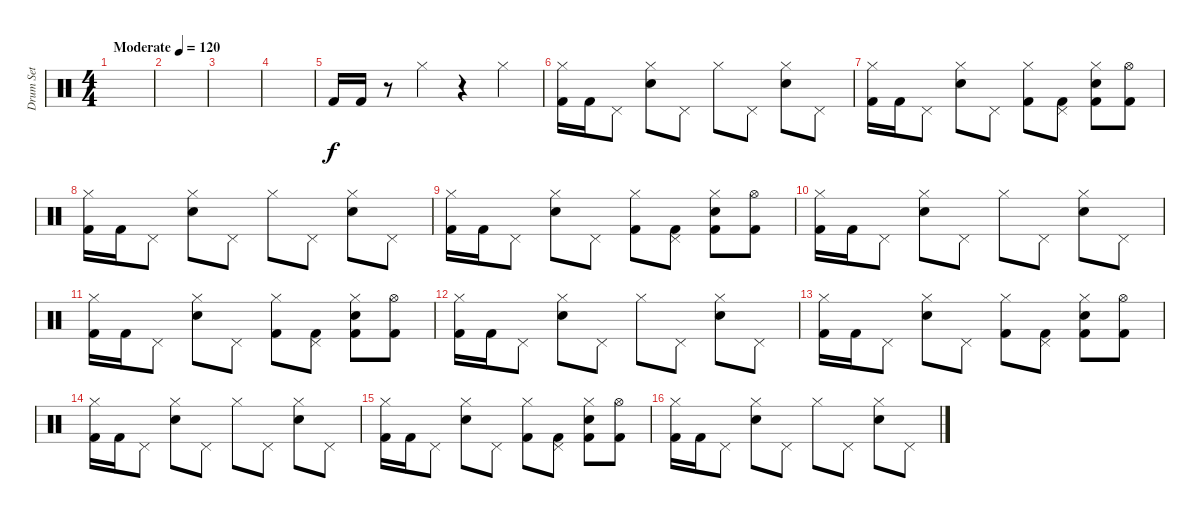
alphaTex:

\track ("Drum Set" "Drum Set") {instrument percussion}
\staff {score}
\articulation defaults
\ts (4 4)
\tempo (120 "Moderate")
\clef neutral
\ks c
|
|
|
|
"Kick (hit) 2".16 "Kick (hit) 2".16 r.8 "Hi-Hat (closed)".4 r.4 "Hi-Hat (closed)".4 |
("Kick (hit) 2" "Hi-Hat (closed)").16 "Kick (hit) 2".16 "Pedal Hi-Hat (hit)".8 ("Hi-Hat (closed)" "Snare (hit) 2").8 "Pedal Hi-Hat (hit)".8 "Hi-Hat (closed)".8 "Pedal Hi-Hat (hit)".8 ("Hi-Hat (closed)" "Snare (hit) 2").8 "Pedal Hi-Hat (hit)".8 |
("Kick (hit) 2" "Hi-Hat (closed)").16 "Kick (hit) 2".16 "Pedal Hi-Hat (hit)".8 ("Hi-Hat (closed)" "Snare (hit) 2").8 "Pedal Hi-Hat (hit)".8 ("Hi-Hat (closed)" "Kick (hit) 2").8 ("Pedal Hi-Hat (hit)" "Kick (hit) 2").8 ("Hi-Hat (closed)" "Snare (hit) 2" "Kick (hit) 2").8 ("Hi-Hat (open)" "Kick (hit) 2").8 |
("Kick (hit) 2" "Hi-Hat (closed)").16 "Kick (hit) 2".16 "Pedal Hi-Hat (hit)".8 ("Hi-Hat (closed)" "Snare (hit) 2").8 "Pedal Hi-Hat (hit)".8 "Hi-Hat (closed)".8 "Pedal Hi-Hat (hit)".8 ("Hi-Hat (closed)" "Snare (hit) 2").8 "Pedal Hi-Hat (hit)".8 |
("Kick (hit) 2" "Hi-Hat (closed)").16 "Kick (hit) 2".16 "Pedal Hi-Hat (hit)".8 ("Hi-Hat (closed)" "Snare (hit) 2").8 "Pedal Hi-Hat (hit)".8 ("Hi-Hat (closed)" "Kick (hit) 2").8 ("Pedal Hi-Hat (hit)" "Kick (hit) 2").8 ("Hi-Hat (closed)" "Snare (hit) 2" "Kick (hit) 2").8 ("Hi-Hat (open)" "Kick (hit) 2").8 |
("Kick (hit) 2" "Hi-Hat (closed)").16 "Kick (hit) 2".16 "Pedal Hi-Hat (hit)".8 ("Hi-Hat (closed)" "Snare (hit) 2").8 "Pedal Hi-Hat (hit)".8 "Hi-Hat (closed)".8 "Pedal Hi-Hat (hit)".8 ("Hi-Hat (closed)" "Snare (hit) 2").8 "Pedal Hi-Hat (hit)".8 |
("Kick (hit) 2" "Hi-Hat (closed)").16 "Kick (hit) 2".16 "Pedal Hi-Hat (hit)".8 ("Hi-Hat (closed)" "Snare (hit) 2").8 "Pedal Hi-Hat (hit)".8 ("Hi-Hat (closed)" "Kick (hit) 2").8 ("Pedal Hi-Hat (hit)" "Kick (hit) 2").8 ("Hi-Hat (closed)" "Snare (hit) 2" "Kick (hit) 2").8 ("Hi-Hat (open)" "Kick (hit) 2").8 |
("Kick (hit) 2" "Hi-Hat (closed)").16 "Kick (hit) 2".16 "Pedal Hi-Hat (hit)".8 ("Hi-Hat (closed)" "Snare (hit) 2").8 "Pedal Hi-Hat (hit)".8 "Hi-Hat (closed)".8 "Pedal Hi-Hat (hit)".8 ("Hi-Hat (closed)" "Snare (hit) 2").8 "Pedal Hi-Hat (hit)".8 |
("Kick (hit) 2" "Hi-Hat (closed)").16 "Kick (hit) 2".16 "Pedal Hi-Hat (hit)".8 ("Hi-Hat (closed)" "Snare (hit) 2").8 "Pedal Hi-Hat (hit)".8 ("Hi-Hat (closed)" "Kick (hit) 2").8 ("Pedal Hi-Hat (hit)" "Kick (hit) 2").8 ("Hi-Hat (closed)" "Snare (hit) 2" "Kick (hit) 2").8 ("Hi-Hat (open)" "Kick (hit) 2").8 |
("Kick (hit) 2" "Hi-Hat (closed)").16 "Kick (hit) 2".16 "Pedal Hi-Hat (hit)".8 ("Hi-Hat (closed)" "Snare (hit) 2").8 "Pedal Hi-Hat (hit)".8 "Hi-Hat (closed)".8 "Pedal Hi-Hat (hit)".8 ("Hi-Hat (closed)" "Snare (hit) 2").8 "Pedal Hi-Hat (hit)".8 |
("Kick (hit) 2" "Hi-Hat (closed)").16 "Kick (hit) 2".16 "Pedal Hi-Hat (hit)".8 ("Hi-Hat (closed)" "Snare (hit) 2").8 "Pedal Hi-Hat (hit)".8 ("Hi-Hat (closed)" "Kick (hit) 2").8 ("Pedal Hi-Hat (hit)" "Kick (hit) 2").8 ("Hi-Hat (closed)" "Snare (hit) 2" "Kick (hit) 2").8 ("Hi-Hat (open)" "Kick (hit) 2").8 |
("Kick (hit) 2" "Hi-Hat (closed)").16 "Kick (hit) 2".16 "Pedal Hi-Hat (hit)".8 ("Hi-Hat (closed)" "Snare (hit) 2").8 "Pedal Hi-Hat (hit)".8 "Hi-Hat (closed)".8 "Pedal Hi-Hat (hit)".8 ("Hi-Hat (closed)" "Snare (hit) 2").8 "Pedal Hi-Hat (hit)".8
